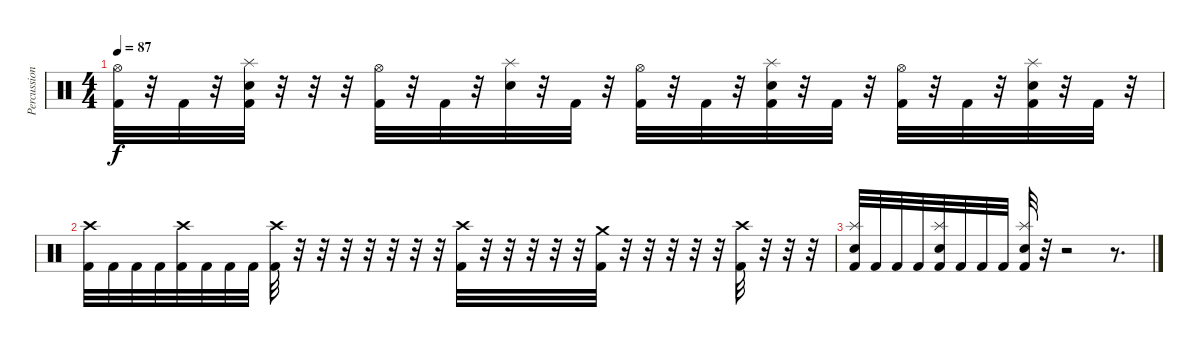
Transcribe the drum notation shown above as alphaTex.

\track ("Percussion" "Percussion") {instrument percussion}
\staff {score}
\articulation defaults
\ts (4 4)
\tempo 87
\clef neutral
\ks c
("Hi-Hat (open)" "Kick (hit) 2").32{dy f} r.32 "Kick (hit) 2".32 r.32 ("Splash (hit)" "Electric Snare (hit)" "Kick (hit) 2").32 r.32 r.32 r.32 ("Hi-Hat (open)" "Kick (hit) 2").32 r.32 "Kick (hit) 2".32 r.32 ("Splash (hit)" "Electric Snare (hit)").32 r.32 "Kick (hit) 2".32 r.32 ("Hi-Hat (open)" "Kick (hit) 2").32 r.32 "Kick (hit) 2".32 r.32 ("Splash (hit)" "Electric Snare (hit)" "Kick (hit) 2").32 r.32 "Kick (hit) 2".32 r.32 ("Hi-Hat (open)" "Kick (hit) 2").32 r.32 "Kick (hit) 2".32 r.32 ("Splash (hit)" "Electric Snare (hit)" "Kick (hit) 2").32 r.32 "Kick (hit) 2".32 r.32 |
("Crash high (hit)" "Kick (hit) 2").32 "Kick (hit) 2".32 "Kick (hit) 2".32 "Kick (hit) 2".32 ("Crash high (hit)" "Kick (hit) 2").32 "Kick (hit) 2".32 "Kick (hit) 2".32 "Kick (hit) 2".32 ("Crash high (hit)" "Kick (hit) 2").32 r.32 r.32{volume 0} r.32 r.32 r.32 r.32 r.32 ("Crash high (hit)" "Kick (hit) 2").32{volume 16} r.32 r.32 r.32 r.32 r.32 ("Crash medium (hit)" "Kick (hit) 2").32 r.32 r.32 r.32 r.32 r.32 ("Crash high (hit)" "Kick (hit) 2").32 r.32 r.32 r.32 |
("Splash (hit)" "Electric Snare (hit)" "Kick (hit) 2").32 "Kick (hit) 2".32 "Kick (hit) 2".32 "Kick (hit) 2".32 ("Splash (hit)" "Electric Snare (hit)" "Kick (hit) 2").32 "Kick (hit) 2".32 "Kick (hit) 2".32 "Kick (hit) 2".32 ("Splash (hit)" "Electric Snare (hit)" "Kick (hit) 2").32 r.32 r.2 r.8{d}
